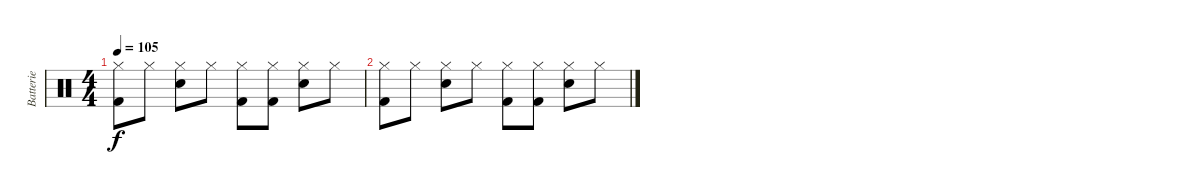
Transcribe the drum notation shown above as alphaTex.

\track ("Batterie" "Batterie") {instrument percussion}
\staff {score}
\articulation defaults
\ts (4 4)
\tempo 105
\clef neutral
\ks c
("Hi-Hat (closed)" "Kick (hit) 2").8{dy f} "Hi-Hat (closed)".8 ("Hi-Hat (closed)" "Electric Snare (hit)").8 "Hi-Hat (closed)".8 ("Hi-Hat (closed)" "Kick (hit) 2").8 ("Hi-Hat (closed)" "Kick (hit) 2").8 ("Hi-Hat (closed)" "Electric Snare (hit)").8 "Hi-Hat (closed)".8 |
("Hi-Hat (closed)" "Kick (hit) 2").8 "Hi-Hat (closed)".8 ("Hi-Hat (closed)" "Electric Snare (hit)").8 "Hi-Hat (closed)".8 ("Hi-Hat (closed)" "Kick (hit) 2").8 ("Hi-Hat (closed)" "Kick (hit) 2").8 ("Hi-Hat (closed)" "Electric Snare (hit)").8 "Hi-Hat (closed)".8
